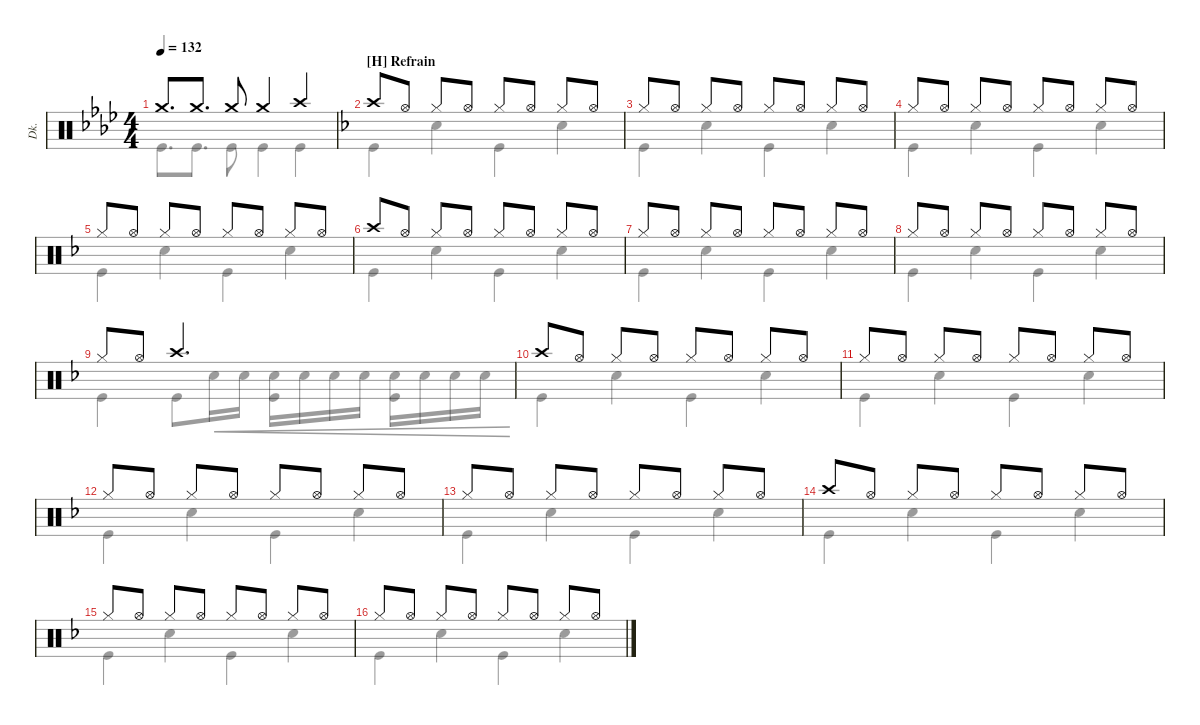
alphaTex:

\defaultSystemsLayout 4
\hideDynamics
\bracketExtendMode nobrackets
\otherSystemsTrackNameOrientation horizontal
\track ("Drumkit" "Dk.") {instrument percussion}
\staff {score}
\articulation defaults
\voice
\ts (4 4)
\tempo 132
\clef neutral
\ks ab "Crash medium (hit)".8{d dy f} "Crash medium (hit)".8{d} "Crash medium (hit)".8 "Crash medium (hit)".4 "Crash high (hit)".4
|
\section ("H" "Refrain")
\ks f "Crash high (hit)".8{dy mf} "Hi-Hat (open)".8 "Hi-Hat (closed)".8 "Hi-Hat (open)".8 "Hi-Hat (closed)".8 "Hi-Hat (open)".8 "Hi-Hat (closed)".8 "Hi-Hat (open)".8
|
"Hi-Hat (closed)".8 "Hi-Hat (open)".8 "Hi-Hat (closed)".8 "Hi-Hat (open)".8 "Hi-Hat (closed)".8 "Hi-Hat (open)".8 "Hi-Hat (closed)".8 "Hi-Hat (open)".8 |
"Hi-Hat (closed)".8 "Hi-Hat (open)".8 "Hi-Hat (closed)".8 "Hi-Hat (open)".8 "Hi-Hat (closed)".8 "Hi-Hat (open)".8 "Hi-Hat (closed)".8 "Hi-Hat (open)".8 |
"Hi-Hat (closed)".8 "Hi-Hat (open)".8 "Hi-Hat (closed)".8 "Hi-Hat (open)".8 "Hi-Hat (closed)".8 "Hi-Hat (open)".8 "Hi-Hat (closed)".8 "Hi-Hat (open)".8 |
"Crash high (hit)".8 "Hi-Hat (open)".8 "Hi-Hat (closed)".8 "Hi-Hat (open)".8 "Hi-Hat (closed)".8 "Hi-Hat (open)".8 "Hi-Hat (closed)".8 "Hi-Hat (open)".8 |
"Hi-Hat (closed)".8 "Hi-Hat (open)".8 "Hi-Hat (closed)".8 "Hi-Hat (open)".8 "Hi-Hat (closed)".8 "Hi-Hat (open)".8 "Hi-Hat (closed)".8 "Hi-Hat (open)".8 |
"Hi-Hat (closed)".8 "Hi-Hat (open)".8 "Hi-Hat (closed)".8 "Hi-Hat (open)".8 "Hi-Hat (closed)".8 "Hi-Hat (open)".8 "Hi-Hat (closed)".8 "Hi-Hat (open)".8 |
"Hi-Hat (closed)".8 "Hi-Hat (open)".8 "Crash high (hit)".2{d dy f} |
"Crash high (hit)".8{dy mf} "Hi-Hat (open)".8 "Hi-Hat (closed)".8 "Hi-Hat (open)".8 "Hi-Hat (closed)".8 "Hi-Hat (open)".8 "Hi-Hat (closed)".8 "Hi-Hat (open)".8 |
"Hi-Hat (closed)".8 "Hi-Hat (open)".8 "Hi-Hat (closed)".8 "Hi-Hat (open)".8 "Hi-Hat (closed)".8 "Hi-Hat (open)".8 "Hi-Hat (closed)".8 "Hi-Hat (open)".8 |
"Hi-Hat (closed)".8 "Hi-Hat (open)".8 "Hi-Hat (closed)".8 "Hi-Hat (open)".8 "Hi-Hat (closed)".8 "Hi-Hat (open)".8 "Hi-Hat (closed)".8 "Hi-Hat (open)".8 |
"Hi-Hat (closed)".8 "Hi-Hat (open)".8 "Hi-Hat (closed)".8 "Hi-Hat (open)".8 "Hi-Hat (closed)".8 "Hi-Hat (open)".8 "Hi-Hat (closed)".8 "Hi-Hat (open)".8 |
"Crash high (hit)".8 "Hi-Hat (open)".8 "Hi-Hat (closed)".8 "Hi-Hat (open)".8 "Hi-Hat (closed)".8 "Hi-Hat (open)".8 "Hi-Hat (closed)".8 "Hi-Hat (open)".8 |
"Hi-Hat (closed)".8 "Hi-Hat (open)".8 "Hi-Hat (closed)".8 "Hi-Hat (open)".8 "Hi-Hat (closed)".8 "Hi-Hat (open)".8 "Hi-Hat (closed)".8 "Hi-Hat (open)".8 |
"Hi-Hat (closed)".8 "Hi-Hat (open)".8 "Hi-Hat (closed)".8 "Hi-Hat (open)".8 "Hi-Hat (closed)".8 "Hi-Hat (open)".8 "Hi-Hat (closed)".8 "Hi-Hat (open)".8
\voice
\clef neutral
\ottava regular
\simile none
\ks ab "Kick (hit)".8{d dy mf} "Kick (hit)".8{d} "Kick (hit)".8 "Kick (hit)".4 "Kick (hit)".4
|
\ks f "Kick (hit)".4 "Snare (hit) 2".4 "Kick (hit)".4 "Snare (hit) 2".4
|
"Kick (hit)".4 "Snare (hit) 2".4 "Kick (hit)".4 "Snare (hit) 2".4 |
"Kick (hit)".4 "Snare (hit) 2".4 "Kick (hit)".4 "Snare (hit) 2".4 |
"Kick (hit)".4 "Snare (hit) 2".4 "Kick (hit)".4 "Snare (hit) 2".4 |
"Kick (hit)".4 "Snare (hit) 2".4 "Kick (hit)".4 "Snare (hit) 2".4 |
"Kick (hit)".4 "Snare (hit) 2".4 "Kick (hit)".4 "Snare (hit) 2".4 |
"Kick (hit)".4 "Snare (hit) 2".4 "Kick (hit)".4 "Snare (hit) 2".4 |
"Kick (hit)".4 "Kick (hit)".8{dy mp} "Snare (hit) 2".16{cre} "Snare (hit) 2".16{cre} ("Kick (hit)" "Snare (hit) 2").16{cre} "Snare (hit) 2".16{cre} "Snare (hit) 2".16{cre} "Snare (hit) 2".16{cre} ("Snare (hit) 2" "Kick (hit)").16{cre} "Snare (hit) 2".16{cre} "Snare (hit) 2".16{cre} "Snare (hit) 2".16{cre} |
"Kick (hit)".4{dy mf} "Snare (hit) 2".4 "Kick (hit)".4 "Snare (hit) 2".4 |
"Kick (hit)".4 "Snare (hit) 2".4 "Kick (hit)".4 "Snare (hit) 2".4 |
"Kick (hit)".4 "Snare (hit) 2".4 "Kick (hit)".4 "Snare (hit) 2".4 |
"Kick (hit)".4 "Snare (hit) 2".4 "Kick (hit)".4 "Snare (hit) 2".4 |
"Kick (hit)".4 "Snare (hit) 2".4 "Kick (hit)".4 "Snare (hit) 2".4 |
"Kick (hit)".4 "Snare (hit) 2".4 "Kick (hit)".4 "Snare (hit) 2".4 |
"Kick (hit)".4 "Snare (hit) 2".4 "Kick (hit)".4 "Snare (hit) 2".4
